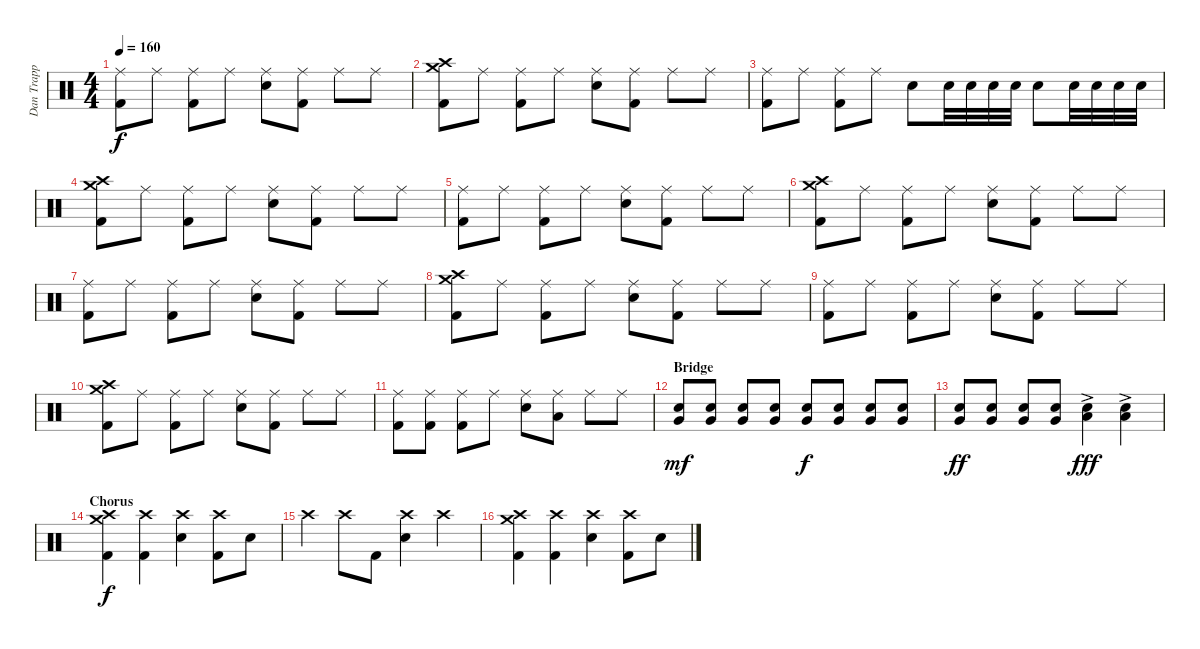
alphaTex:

\track ("Dan Trapp" "Dan Trapp") {instrument percussion}
\staff {score}
\articulation defaults
\ts (4 4)
\tempo 160
\clef neutral
\ks c
("Ride (middle)" "Kick (hit) 2").8{dy f} "Ride (middle)".8 ("Ride (middle)" "Kick (hit) 2").8 "Ride (middle)".8 ("Ride (middle)" "Snare (hit) 2").8 ("Ride (middle)" "Kick (hit) 2").8 "Ride (middle)".8 "Ride (middle)".8 |
("Crash medium (hit)" "Crash high (hit)" "Kick (hit) 2").8 "Ride (middle)".8 ("Ride (middle)" "Kick (hit) 2").8 "Ride (middle)".8 ("Ride (middle)" "Snare (hit) 2").8 ("Ride (middle)" "Kick (hit) 2").8 "Ride (middle)".8 "Ride (middle)".8 |
("Ride (middle)" "Kick (hit) 2").8 "Ride (middle)".8 ("Ride (middle)" "Kick (hit) 2").8 "Ride (middle)".8 "Snare (hit) 2".8 "Snare (hit) 2".32 "Snare (hit) 2".32 "Snare (hit) 2".32 "Snare (hit) 2".32 "Snare (hit) 2".8 "Snare (hit) 2".32 "Snare (hit) 2".32 "Snare (hit) 2".32 "Snare (hit) 2".32 |
("Crash medium (hit)" "Crash high (hit)" "Kick (hit) 2").8 "Ride (middle)".8 ("Ride (middle)" "Kick (hit) 2").8 "Ride (middle)".8 ("Ride (middle)" "Snare (hit) 2").8 ("Ride (middle)" "Kick (hit) 2").8 "Ride (middle)".8 "Ride (middle)".8 |
("Ride (middle)" "Kick (hit) 2").8 "Ride (middle)".8 ("Ride (middle)" "Kick (hit) 2").8 "Ride (middle)".8 ("Ride (middle)" "Snare (hit) 2").8 ("Ride (middle)" "Kick (hit) 2").8 "Ride (middle)".8 "Ride (middle)".8 |
("Crash medium (hit)" "Crash high (hit)" "Kick (hit) 2").8 "Ride (middle)".8 ("Ride (middle)" "Kick (hit) 2").8 "Ride (middle)".8 ("Ride (middle)" "Snare (hit) 2").8 ("Ride (middle)" "Kick (hit) 2").8 "Ride (middle)".8 "Ride (middle)".8 |
("Ride (middle)" "Kick (hit) 2").8 "Ride (middle)".8 ("Ride (middle)" "Kick (hit) 2").8 "Ride (middle)".8 ("Ride (middle)" "Snare (hit) 2").8 ("Ride (middle)" "Kick (hit) 2").8 "Ride (middle)".8 "Ride (middle)".8 |
("Crash medium (hit)" "Crash high (hit)" "Kick (hit) 2").8 "Ride (middle)".8 ("Ride (middle)" "Kick (hit) 2").8 "Ride (middle)".8 ("Ride (middle)" "Snare (hit) 2").8 ("Ride (middle)" "Kick (hit) 2").8 "Ride (middle)".8 "Ride (middle)".8 |
("Ride (middle)" "Kick (hit) 2").8 "Ride (middle)".8 ("Ride (middle)" "Kick (hit) 2").8 "Ride (middle)".8 ("Ride (middle)" "Snare (hit) 2").8 ("Ride (middle)" "Kick (hit) 2").8 "Ride (middle)".8 "Ride (middle)".8 |
("Crash medium (hit)" "Crash high (hit)" "Kick (hit) 2").8 "Ride (middle)".8 ("Ride (middle)" "Kick (hit) 2").8 "Ride (middle)".8 ("Ride (middle)" "Snare (hit) 2").8 ("Ride (middle)" "Kick (hit) 2").8 "Ride (middle)".8 "Ride (middle)".8 |
("Ride (middle)" "Kick (hit) 2").8 ("Ride (middle)" "Kick (hit) 2").8 ("Ride (middle)" "Kick (hit) 2").8 "Ride (middle)".8 ("Ride (middle)" "Snare (hit) 2").8 ("Ride (middle)" "Low Tom (hit)").8 "Ride (middle)".8 "Ride (middle)".8 |
\section ("" "Bridge")
("Very Low Tom (hit)" "Snare (hit) 2").8{dy mf} ("Very Low Tom (hit)" "Snare (hit) 2").8 ("Very Low Tom (hit)" "Snare (hit) 2").8 ("Very Low Tom (hit)" "Snare (hit) 2").8 ("Very Low Tom (hit)" "Snare (hit) 2").8{dy f} ("Very Low Tom (hit)" "Snare (hit) 2").8 ("Very Low Tom (hit)" "Snare (hit) 2").8 ("Very Low Tom (hit)" "Snare (hit) 2").8 |
("Very Low Tom (hit)" "Snare (hit) 2").8{dy ff} ("Very Low Tom (hit)" "Snare (hit) 2").8 ("Very Low Tom (hit)" "Snare (hit) 2").8 ("Very Low Tom (hit)" "Snare (hit) 2").8 ("Low Floor Tom (hit)"{ac} "Snare (hit) 2").4{dy fff} ("Low Floor Tom (hit)"{ac} "Snare (hit) 2").4 |
\section ("" "Chorus")
("Crash medium (hit)" "Crash high (hit)" "Kick (hit) 2").4{dy f} ("Crash high (hit)" "Kick (hit) 2").4 ("Crash high (hit)" "Snare (hit) 2").4 ("Crash high (hit)" "Kick (hit) 2").8 "Snare (hit) 2".8 |
"Crash high (hit)".4 "Crash high (hit)".8 "Kick (hit) 2".8 ("Crash high (hit)" "Snare (hit) 2").4 "Crash high (hit)".4 |
("Crash medium (hit)" "Crash high (hit)" "Kick (hit) 2").4 ("Crash high (hit)" "Kick (hit) 2").4 ("Crash high (hit)" "Snare (hit) 2").4 ("Crash high (hit)" "Kick (hit) 2").8 "Snare (hit) 2".8
